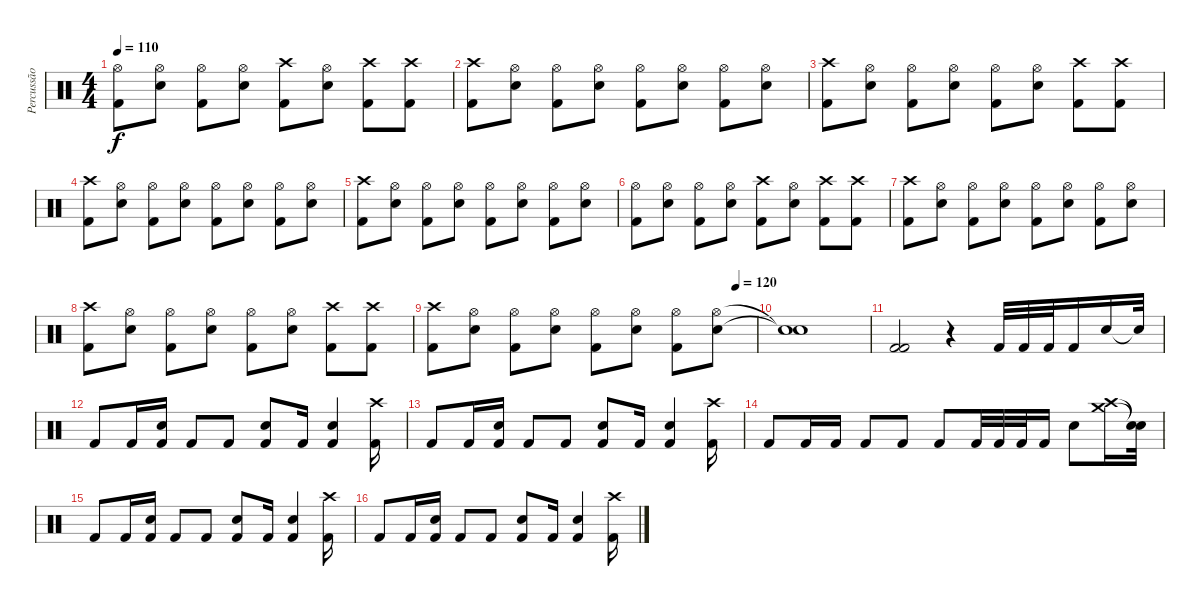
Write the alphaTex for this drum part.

\track ("Percussão" "Percussão") {instrument percussion}
\staff {score}
\articulation defaults
\ts (4 4)
\tempo 110
\clef neutral
\ks c
("Hi-Hat (open)" "Kick (hit) 2").8{dy f} ("Hi-Hat (open)" "Snare (hit) 2").8 ("Hi-Hat (open)" "Kick (hit) 2").8 ("Hi-Hat (open)" "Snare (hit) 2").8 ("Crash high (hit)" "Kick (hit) 2").8 ("Hi-Hat (open)" "Snare (hit) 2").8 ("Crash high (hit)" "Kick (hit) 2").8 ("Crash high (hit)" "Kick (hit) 2").8 |
("Crash high (hit)" "Kick (hit) 2").8 ("Hi-Hat (open)" "Snare (hit) 2").8 ("Hi-Hat (open)" "Kick (hit) 2").8 ("Hi-Hat (open)" "Snare (hit) 2").8 ("Hi-Hat (open)" "Kick (hit) 2").8 ("Hi-Hat (open)" "Snare (hit) 2").8 ("Hi-Hat (open)" "Kick (hit) 2").8 ("Hi-Hat (open)" "Snare (hit) 2").8 |
("Crash high (hit)" "Kick (hit) 2").8 ("Hi-Hat (open)" "Snare (hit) 2").8 ("Hi-Hat (open)" "Kick (hit) 2").8 ("Hi-Hat (open)" "Snare (hit) 2").8 ("Hi-Hat (open)" "Kick (hit) 2").8 ("Hi-Hat (open)" "Snare (hit) 2").8 ("Crash high (hit)" "Kick (hit) 2").8 ("Crash high (hit)" "Kick (hit) 2").8 |
("Crash high (hit)" "Kick (hit) 2").8 ("Hi-Hat (open)" "Snare (hit) 2").8 ("Hi-Hat (open)" "Kick (hit) 2").8 ("Hi-Hat (open)" "Snare (hit) 2").8 ("Hi-Hat (open)" "Kick (hit) 2").8 ("Hi-Hat (open)" "Snare (hit) 2").8 ("Hi-Hat (open)" "Kick (hit) 2").8 ("Hi-Hat (open)" "Snare (hit) 2").8 |
("Crash high (hit)" "Kick (hit) 2").8 ("Hi-Hat (open)" "Snare (hit) 2").8 ("Hi-Hat (open)" "Kick (hit) 2").8 ("Hi-Hat (open)" "Snare (hit) 2").8 ("Hi-Hat (open)" "Kick (hit) 2").8 ("Hi-Hat (open)" "Snare (hit) 2").8 ("Hi-Hat (open)" "Kick (hit) 2").8 ("Hi-Hat (open)" "Snare (hit) 2").8 |
("Hi-Hat (open)" "Kick (hit) 2").8 ("Hi-Hat (open)" "Snare (hit) 2").8 ("Hi-Hat (open)" "Kick (hit) 2").8 ("Hi-Hat (open)" "Snare (hit) 2").8 ("Crash high (hit)" "Kick (hit) 2").8 ("Hi-Hat (open)" "Snare (hit) 2").8 ("Crash high (hit)" "Kick (hit) 2").8 ("Crash high (hit)" "Kick (hit) 2").8 |
("Crash high (hit)" "Kick (hit) 2").8 ("Hi-Hat (open)" "Snare (hit) 2").8 ("Hi-Hat (open)" "Kick (hit) 2").8 ("Hi-Hat (open)" "Snare (hit) 2").8 ("Hi-Hat (open)" "Kick (hit) 2").8 ("Hi-Hat (open)" "Snare (hit) 2").8 ("Hi-Hat (open)" "Kick (hit) 2").8 ("Hi-Hat (open)" "Snare (hit) 2").8 |
("Crash high (hit)" "Kick (hit) 2").8 ("Hi-Hat (open)" "Snare (hit) 2").8 ("Hi-Hat (open)" "Kick (hit) 2").8 ("Hi-Hat (open)" "Snare (hit) 2").8 ("Hi-Hat (open)" "Kick (hit) 2").8 ("Hi-Hat (open)" "Snare (hit) 2").8 ("Crash high (hit)" "Kick (hit) 2").8 ("Crash high (hit)" "Kick (hit) 2").8 |
\tempo (120 0.9375)
("Crash high (hit)" "Kick (hit) 2").8 ("Hi-Hat (open)" "Snare (hit) 2").8 ("Hi-Hat (open)" "Kick (hit) 2").8 ("Hi-Hat (open)" "Snare (hit) 2").8 ("Hi-Hat (open)" "Kick (hit) 2").8 ("Hi-Hat (open)" "Snare (hit) 2").8 ("Hi-Hat (open)" "Kick (hit) 2").8 ("Hi-Hat (open)" "Snare (hit) 2").8 |
("Snare (hit)"{t} "Snare (hit)"{t}).1 |
("Kick (hit) 2" "Kick (hit) 2").2 r.4 "Kick (hit) 2".32 "Kick (hit) 2".32 "Kick (hit) 2".32 "Kick (hit) 2".16 "Snare (hit) 2".16 "Snare (hit)"{t}.32 |
"Kick (hit) 2".8 "Kick (hit) 2".16 ("Snare (hit) 2" "Kick (hit) 2").16 "Kick (hit) 2".8 "Kick (hit) 2".8 ("Snare (hit) 2" "Kick (hit) 2").8 "Kick (hit) 2".16 ("Snare (hit) 2" "Kick (hit) 2").4 ("Kick (hit) 2" "Crash high (hit)").16 |
"Kick (hit) 2".8 "Kick (hit) 2".16 ("Snare (hit) 2" "Kick (hit) 2").16 "Kick (hit) 2".8 "Kick (hit) 2".8 ("Snare (hit) 2" "Kick (hit) 2").8 "Kick (hit) 2".16 ("Snare (hit) 2" "Kick (hit) 2").4 ("Kick (hit) 2" "Crash high (hit)").16 |
"Kick (hit) 2".8 "Kick (hit) 2".16 "Kick (hit) 2".16 "Kick (hit) 2".8 "Kick (hit) 2".8 "Kick (hit) 2".8 "Kick (hit) 2".32 "Kick (hit) 2".32 "Kick (hit) 2".32 "Kick (hit) 2".16 "Snare (hit) 2".8 ("Crash high (hit)" "Crash medium (hit)").16 ("Snare (hit)"{t} "Snare (hit)"{t}).32 |
"Kick (hit) 2".8 "Kick (hit) 2".16 ("Snare (hit) 2" "Kick (hit) 2").16 "Kick (hit) 2".8 "Kick (hit) 2".8 ("Snare (hit) 2" "Kick (hit) 2").8 "Kick (hit) 2".16 ("Snare (hit) 2" "Kick (hit) 2").4 ("Kick (hit) 2" "Crash high (hit)").16 |
"Kick (hit) 2".8 "Kick (hit) 2".16 ("Snare (hit) 2" "Kick (hit) 2").16 "Kick (hit) 2".8 "Kick (hit) 2".8 ("Snare (hit) 2" "Kick (hit) 2").8 "Kick (hit) 2".16 ("Snare (hit) 2" "Kick (hit) 2").4 ("Kick (hit) 2" "Crash high (hit)").16
